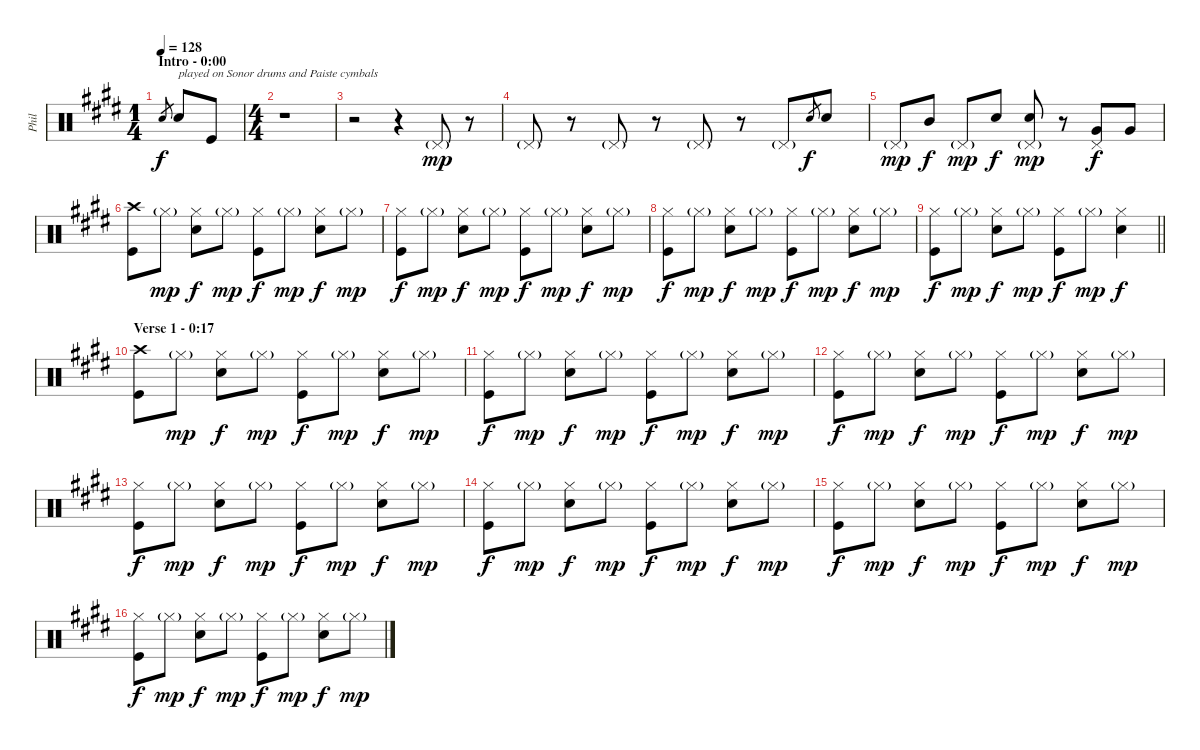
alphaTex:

\track ("Phil" "Phil") {instrument percussion}
\staff {score}
\articulation defaults
\ts (1 4)
\section ("" "Intro - 0:00")
\tempo 128
\clef neutral
\ks e "Electric Snare (hit)".8{gr dy f} "Electric Snare (hit)".8{txt "played on Sonor drums and Paiste cymbals"} "Kick (hit)".8
|
\ts (4 4)
r.1 |
r.2 r.4 "Pedal Hi-Hat (hit)"{g}.8{dy mp} r.8 |
"Pedal Hi-Hat (hit)"{g}.8 r.8 "Pedal Hi-Hat (hit)"{g}.8 r.8 "Pedal Hi-Hat (hit)"{g}.8 r.8 "Pedal Hi-Hat (hit)"{g}.8 "Electric Snare (hit)".8{gr dy f} "Electric Snare (hit)".8 |
"Pedal Hi-Hat (hit)"{g}.8{dy mp} "Mid Tom (hit)".8{dy f} "Pedal Hi-Hat (hit)"{g}.8{dy mp} "Electric Snare (hit)".8{dy f} ("Electric Snare (hit)" "Pedal Hi-Hat (hit)"{g}).8{dy mp} r.8 ("Very Low Tom (hit)" "Pedal Hi-Hat (hit)").8{dy f} "Very Low Tom (hit)".8 |
("Crash high (hit)" "Kick (hit)").8 "Hi-Hat (closed)"{g}.8{dy mp} ("Hi-Hat (closed)" "Electric Snare (hit)").8{dy f} "Hi-Hat (closed)"{g}.8{dy mp} ("Hi-Hat (closed)" "Kick (hit)").8{dy f} "Hi-Hat (closed)"{g}.8{dy mp} ("Hi-Hat (closed)" "Electric Snare (hit)").8{dy f} "Hi-Hat (closed)"{g}.8{dy mp} |
("Hi-Hat (closed)" "Kick (hit)").8{dy f} "Hi-Hat (closed)"{g}.8{dy mp} ("Hi-Hat (closed)" "Electric Snare (hit)").8{dy f} "Hi-Hat (closed)"{g}.8{dy mp} ("Hi-Hat (closed)" "Kick (hit)").8{dy f} "Hi-Hat (closed)"{g}.8{dy mp} ("Hi-Hat (closed)" "Electric Snare (hit)").8{dy f} "Hi-Hat (closed)"{g}.8{dy mp} |
("Hi-Hat (closed)" "Kick (hit)").8{dy f} "Hi-Hat (closed)"{g}.8{dy mp} ("Hi-Hat (closed)" "Electric Snare (hit)").8{dy f} "Hi-Hat (closed)"{g}.8{dy mp} ("Hi-Hat (closed)" "Kick (hit)").8{dy f} "Hi-Hat (closed)"{g}.8{dy mp} ("Hi-Hat (closed)" "Electric Snare (hit)").8{dy f} "Hi-Hat (closed)"{g}.8{dy mp} |
\barLineRight lightlight
("Hi-Hat (closed)" "Kick (hit)").8{dy f} "Hi-Hat (closed)"{g}.8{dy mp} ("Hi-Hat (closed)" "Electric Snare (hit)").8{dy f} "Hi-Hat (closed)"{g}.8{dy mp} ("Hi-Hat (closed)" "Kick (hit)").8{dy f} "Hi-Hat (closed)"{g}.8{dy mp} ("Hi-Hat (closed)" "Electric Snare (hit)").4{dy f} |
\section ("" "Verse 1 - 0:17")
("Crash high (hit)" "Kick (hit)").8 "Hi-Hat (closed)"{g}.8{dy mp} ("Hi-Hat (closed)" "Electric Snare (hit)").8{dy f} "Hi-Hat (closed)"{g}.8{dy mp} ("Hi-Hat (closed)" "Kick (hit)").8{dy f} "Hi-Hat (closed)"{g}.8{dy mp} ("Hi-Hat (closed)" "Electric Snare (hit)").8{dy f} "Hi-Hat (closed)"{g}.8{dy mp} |
("Hi-Hat (closed)" "Kick (hit)").8{dy f} "Hi-Hat (closed)"{g}.8{dy mp} ("Hi-Hat (closed)" "Electric Snare (hit)").8{dy f} "Hi-Hat (closed)"{g}.8{dy mp} ("Hi-Hat (closed)" "Kick (hit)").8{dy f} "Hi-Hat (closed)"{g}.8{dy mp} ("Hi-Hat (closed)" "Electric Snare (hit)").8{dy f} "Hi-Hat (closed)"{g}.8{dy mp} |
("Hi-Hat (closed)" "Kick (hit)").8{dy f} "Hi-Hat (closed)"{g}.8{dy mp} ("Hi-Hat (closed)" "Electric Snare (hit)").8{dy f} "Hi-Hat (closed)"{g}.8{dy mp} ("Hi-Hat (closed)" "Kick (hit)").8{dy f} "Hi-Hat (closed)"{g}.8{dy mp} ("Hi-Hat (closed)" "Electric Snare (hit)").8{dy f} "Hi-Hat (closed)"{g}.8{dy mp} |
("Hi-Hat (closed)" "Kick (hit)").8{dy f} "Hi-Hat (closed)"{g}.8{dy mp} ("Hi-Hat (closed)" "Electric Snare (hit)").8{dy f} "Hi-Hat (closed)"{g}.8{dy mp} ("Hi-Hat (closed)" "Kick (hit)").8{dy f} "Hi-Hat (closed)"{g}.8{dy mp} ("Hi-Hat (closed)" "Electric Snare (hit)").8{dy f} "Hi-Hat (closed)"{g}.8{dy mp} |
("Hi-Hat (closed)" "Kick (hit)").8{dy f} "Hi-Hat (closed)"{g}.8{dy mp} ("Hi-Hat (closed)" "Electric Snare (hit)").8{dy f} "Hi-Hat (closed)"{g}.8{dy mp} ("Hi-Hat (closed)" "Kick (hit)").8{dy f} "Hi-Hat (closed)"{g}.8{dy mp} ("Hi-Hat (closed)" "Electric Snare (hit)").8{dy f} "Hi-Hat (closed)"{g}.8{dy mp} |
("Hi-Hat (closed)" "Kick (hit)").8{dy f} "Hi-Hat (closed)"{g}.8{dy mp} ("Hi-Hat (closed)" "Electric Snare (hit)").8{dy f} "Hi-Hat (closed)"{g}.8{dy mp} ("Hi-Hat (closed)" "Kick (hit)").8{dy f} "Hi-Hat (closed)"{g}.8{dy mp} ("Hi-Hat (closed)" "Electric Snare (hit)").8{dy f} "Hi-Hat (closed)"{g}.8{dy mp} |
("Hi-Hat (closed)" "Kick (hit)").8{dy f} "Hi-Hat (closed)"{g}.8{dy mp} ("Hi-Hat (closed)" "Electric Snare (hit)").8{dy f} "Hi-Hat (closed)"{g}.8{dy mp} ("Hi-Hat (closed)" "Kick (hit)").8{dy f} "Hi-Hat (closed)"{g}.8{dy mp} ("Hi-Hat (closed)" "Electric Snare (hit)").8{dy f} "Hi-Hat (closed)"{g}.8{dy mp}
